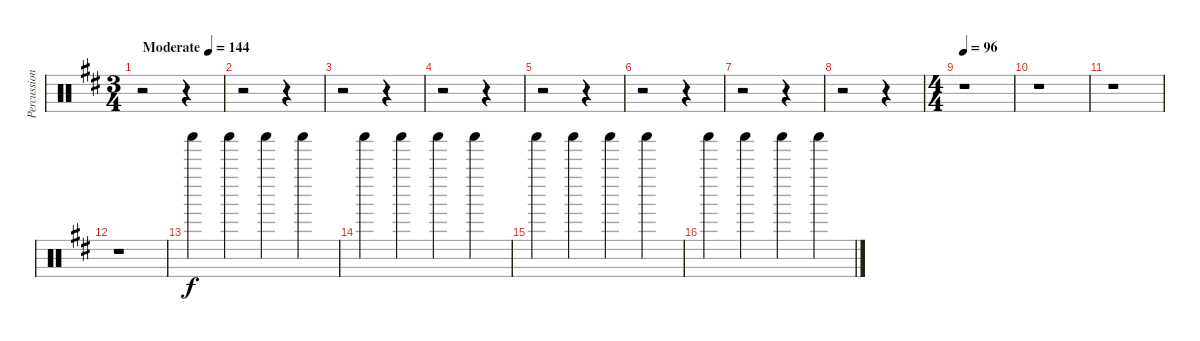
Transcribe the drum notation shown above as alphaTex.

\track ("Percussion" "Percussion") {instrument percussion}
\staff {score}
\articulation defaults
\ts (3 4)
\tempo (144 "Moderate")
\clef neutral
\ks d
r.2{dy f} r.4 |
r.2 r.4 |
r.2 r.4 |
r.2 r.4 |
r.2 r.4 |
r.2 r.4 |
r.2 r.4 |
r.2 r.4 |
\ts (4 4)
\tempo 96
r.1 |
r.1 |
r.1 |
r.1 |
"Shaker (hit)".4 "Shaker (hit)".4 "Shaker (hit)".4 "Shaker (hit)".4 |
"Shaker (hit)".4 "Shaker (hit)".4 "Shaker (hit)".4 "Shaker (hit)".4 |
"Shaker (hit)".4 "Shaker (hit)".4 "Shaker (hit)".4 "Shaker (hit)".4 |
"Shaker (hit)".4 "Shaker (hit)".4 "Shaker (hit)".4 "Shaker (hit)".4
